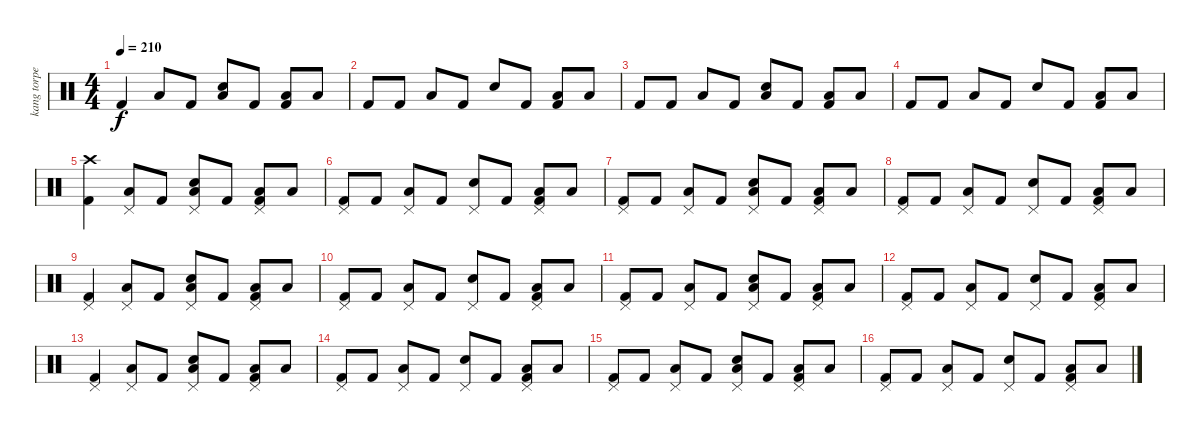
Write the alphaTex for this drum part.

\track ("kang torpey" "kang torpe") {instrument percussion}
\staff {score}
\articulation defaults
\ts (4 4)
\tempo 210
\clef neutral
\ks c "Kick (hit) 2".4{dy f} "Low Floor Tom (hit)".8 "Kick (hit) 2".8
("Low Floor Tom (hit)" "Electric Snare (hit)").8 "Kick (hit) 2".8 ("Low Floor Tom (hit)" "Kick (hit) 2").8 "Low Floor Tom (hit)".8 |
"Kick (hit) 2".8 "Kick (hit) 2".8 "Low Floor Tom (hit)".8 "Kick (hit) 2".8 "Electric Snare (hit)".8 "Kick (hit) 2".8 ("Low Floor Tom (hit)" "Kick (hit) 2").8 "Low Floor Tom (hit)".8 |
"Kick (hit) 2".8 "Kick (hit) 2".8 "Low Floor Tom (hit)".8 "Kick (hit) 2".8 ("Low Floor Tom (hit)" "Electric Snare (hit)").8 "Kick (hit) 2".8 ("Low Floor Tom (hit)" "Kick (hit) 2").8 "Low Floor Tom (hit)".8 |
"Kick (hit) 2".8 "Kick (hit) 2".8 "Low Floor Tom (hit)".8 "Kick (hit) 2".8 "Electric Snare (hit)".8 "Kick (hit) 2".8 ("Low Floor Tom (hit)" "Kick (hit) 2").8 "Low Floor Tom (hit)".8 |
("Crash high (hit)" "Kick (hit) 2").4 ("Pedal Hi-Hat (hit)" "Low Floor Tom (hit)").8 "Kick (hit) 2".8 ("Pedal Hi-Hat (hit)" "Low Floor Tom (hit)" "Electric Snare (hit)").8 "Kick (hit) 2".8 ("Pedal Hi-Hat (hit)" "Low Floor Tom (hit)" "Kick (hit) 2").8 "Low Floor Tom (hit)".8 |
("Pedal Hi-Hat (hit)" "Kick (hit) 2").8 "Kick (hit) 2".8 ("Pedal Hi-Hat (hit)" "Low Floor Tom (hit)").8 "Kick (hit) 2".8 ("Pedal Hi-Hat (hit)" "Electric Snare (hit)").8 "Kick (hit) 2".8 ("Pedal Hi-Hat (hit)" "Low Floor Tom (hit)" "Kick (hit) 2").8 "Low Floor Tom (hit)".8 |
("Pedal Hi-Hat (hit)" "Kick (hit) 2").8 "Kick (hit) 2".8 ("Pedal Hi-Hat (hit)" "Low Floor Tom (hit)").8 "Kick (hit) 2".8 ("Pedal Hi-Hat (hit)" "Low Floor Tom (hit)" "Electric Snare (hit)").8 "Kick (hit) 2".8 ("Pedal Hi-Hat (hit)" "Low Floor Tom (hit)" "Kick (hit) 2").8 "Low Floor Tom (hit)".8 |
("Pedal Hi-Hat (hit)" "Kick (hit) 2").8 "Kick (hit) 2".8 ("Pedal Hi-Hat (hit)" "Low Floor Tom (hit)").8 "Kick (hit) 2".8 ("Pedal Hi-Hat (hit)" "Electric Snare (hit)").8 "Kick (hit) 2".8 ("Pedal Hi-Hat (hit)" "Low Floor Tom (hit)" "Kick (hit) 2").8 "Low Floor Tom (hit)".8 |
("Pedal Hi-Hat (hit)" "Kick (hit) 2").4 ("Pedal Hi-Hat (hit)" "Low Floor Tom (hit)").8 "Kick (hit) 2".8 ("Pedal Hi-Hat (hit)" "Low Floor Tom (hit)" "Electric Snare (hit)").8 "Kick (hit) 2".8 ("Pedal Hi-Hat (hit)" "Low Floor Tom (hit)" "Kick (hit) 2").8 "Low Floor Tom (hit)".8 |
("Pedal Hi-Hat (hit)" "Kick (hit) 2").8 "Kick (hit) 2".8 ("Pedal Hi-Hat (hit)" "Low Floor Tom (hit)").8 "Kick (hit) 2".8 ("Pedal Hi-Hat (hit)" "Electric Snare (hit)").8 "Kick (hit) 2".8 ("Pedal Hi-Hat (hit)" "Low Floor Tom (hit)" "Kick (hit) 2").8 "Low Floor Tom (hit)".8 |
("Pedal Hi-Hat (hit)" "Kick (hit) 2").8 "Kick (hit) 2".8 ("Pedal Hi-Hat (hit)" "Low Floor Tom (hit)").8 "Kick (hit) 2".8 ("Pedal Hi-Hat (hit)" "Low Floor Tom (hit)" "Electric Snare (hit)").8 "Kick (hit) 2".8 ("Pedal Hi-Hat (hit)" "Low Floor Tom (hit)" "Kick (hit) 2").8 "Low Floor Tom (hit)".8 |
("Pedal Hi-Hat (hit)" "Kick (hit) 2").8 "Kick (hit) 2".8 ("Pedal Hi-Hat (hit)" "Low Floor Tom (hit)").8 "Kick (hit) 2".8 ("Pedal Hi-Hat (hit)" "Electric Snare (hit)").8 "Kick (hit) 2".8 ("Pedal Hi-Hat (hit)" "Low Floor Tom (hit)" "Kick (hit) 2").8 "Low Floor Tom (hit)".8 |
("Pedal Hi-Hat (hit)" "Kick (hit) 2").4 ("Pedal Hi-Hat (hit)" "Low Floor Tom (hit)").8 "Kick (hit) 2".8 ("Pedal Hi-Hat (hit)" "Low Floor Tom (hit)" "Electric Snare (hit)").8 "Kick (hit) 2".8 ("Pedal Hi-Hat (hit)" "Low Floor Tom (hit)" "Kick (hit) 2").8 "Low Floor Tom (hit)".8 |
("Pedal Hi-Hat (hit)" "Kick (hit) 2").8 "Kick (hit) 2".8 ("Pedal Hi-Hat (hit)" "Low Floor Tom (hit)").8 "Kick (hit) 2".8 ("Pedal Hi-Hat (hit)" "Electric Snare (hit)").8 "Kick (hit) 2".8 ("Pedal Hi-Hat (hit)" "Low Floor Tom (hit)" "Kick (hit) 2").8 "Low Floor Tom (hit)".8 |
("Pedal Hi-Hat (hit)" "Kick (hit) 2").8 "Kick (hit) 2".8 ("Pedal Hi-Hat (hit)" "Low Floor Tom (hit)").8 "Kick (hit) 2".8 ("Pedal Hi-Hat (hit)" "Low Floor Tom (hit)" "Electric Snare (hit)").8 "Kick (hit) 2".8 ("Pedal Hi-Hat (hit)" "Low Floor Tom (hit)" "Kick (hit) 2").8 "Low Floor Tom (hit)".8 |
("Pedal Hi-Hat (hit)" "Kick (hit) 2").8 "Kick (hit) 2".8 ("Pedal Hi-Hat (hit)" "Low Floor Tom (hit)").8 "Kick (hit) 2".8 ("Pedal Hi-Hat (hit)" "Electric Snare (hit)").8 "Kick (hit) 2".8 ("Pedal Hi-Hat (hit)" "Low Floor Tom (hit)" "Kick (hit) 2").8 "Low Floor Tom (hit)".8
